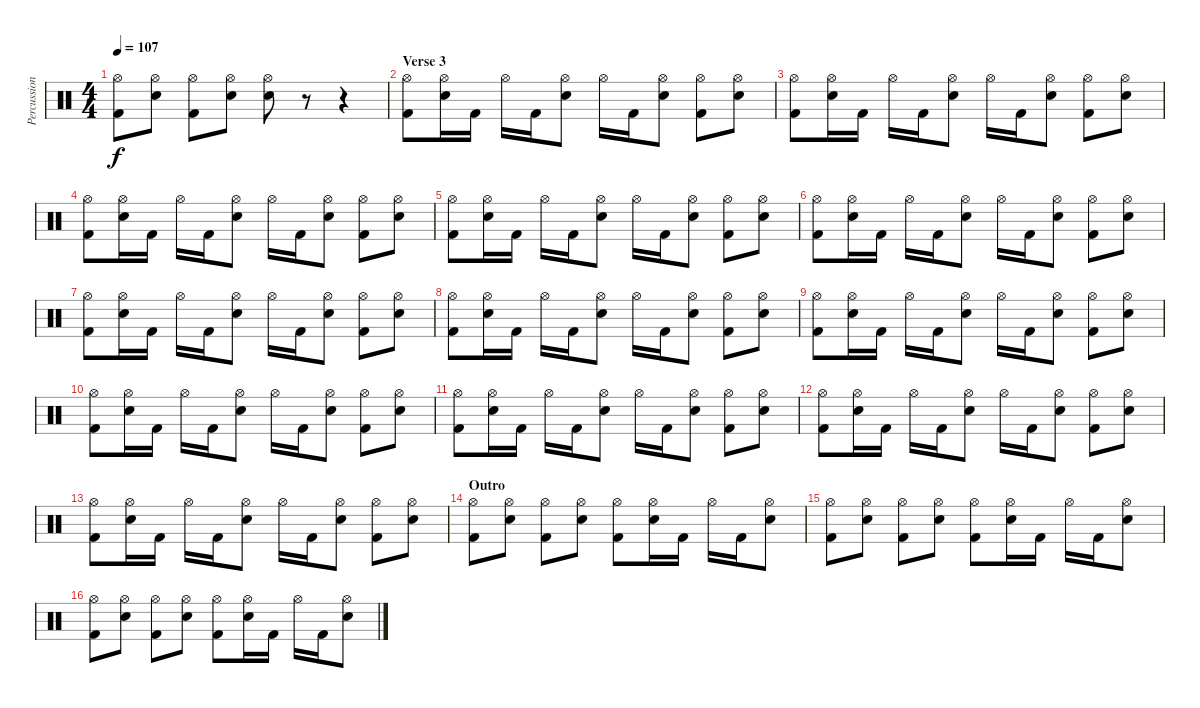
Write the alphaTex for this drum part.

\track ("Percussion" "Percussion") {instrument percussion}
\staff {score}
\articulation defaults
\ts (4 4)
\tempo 107
\clef neutral
\ks c
("Hi-Hat (open)" "Kick (hit) 2").8{dy f} ("Hi-Hat (open)" "Electric Snare (hit)").8 ("Hi-Hat (open)" "Kick (hit) 2").8 ("Hi-Hat (open)" "Electric Snare (hit)").8 ("Hi-Hat (open)" "Electric Snare (hit)").8 r.8 r.4 |
\section ("" "Verse 3")
("Hi-Hat (open)" "Kick (hit) 2").8 ("Hi-Hat (open)" "Electric Snare (hit)").16 "Kick (hit) 2".16 "Hi-Hat (open)".16 "Kick (hit) 2".16 ("Hi-Hat (open)" "Electric Snare (hit)").8 "Hi-Hat (open)".16 "Kick (hit) 2".16 ("Hi-Hat (open)" "Electric Snare (hit)").8 ("Hi-Hat (open)" "Kick (hit) 2").8 ("Hi-Hat (open)" "Electric Snare (hit)").8 |
("Hi-Hat (open)" "Kick (hit) 2").8 ("Hi-Hat (open)" "Electric Snare (hit)").16 "Kick (hit) 2".16 "Hi-Hat (open)".16 "Kick (hit) 2".16 ("Hi-Hat (open)" "Electric Snare (hit)").8 "Hi-Hat (open)".16 "Kick (hit) 2".16 ("Hi-Hat (open)" "Electric Snare (hit)").8 ("Hi-Hat (open)" "Kick (hit) 2").8 ("Hi-Hat (open)" "Electric Snare (hit)").8 |
("Hi-Hat (open)" "Kick (hit) 2").8 ("Hi-Hat (open)" "Electric Snare (hit)").16 "Kick (hit) 2".16 "Hi-Hat (open)".16 "Kick (hit) 2".16 ("Hi-Hat (open)" "Electric Snare (hit)").8 "Hi-Hat (open)".16 "Kick (hit) 2".16 ("Hi-Hat (open)" "Electric Snare (hit)").8 ("Hi-Hat (open)" "Kick (hit) 2").8 ("Hi-Hat (open)" "Electric Snare (hit)").8 |
("Hi-Hat (open)" "Kick (hit) 2").8 ("Hi-Hat (open)" "Electric Snare (hit)").16 "Kick (hit) 2".16 "Hi-Hat (open)".16 "Kick (hit) 2".16 ("Hi-Hat (open)" "Electric Snare (hit)").8 "Hi-Hat (open)".16 "Kick (hit) 2".16 ("Hi-Hat (open)" "Electric Snare (hit)").8 ("Hi-Hat (open)" "Kick (hit) 2").8 ("Hi-Hat (open)" "Electric Snare (hit)").8 |
("Hi-Hat (open)" "Kick (hit) 2").8 ("Hi-Hat (open)" "Electric Snare (hit)").16 "Kick (hit) 2".16 "Hi-Hat (open)".16 "Kick (hit) 2".16 ("Hi-Hat (open)" "Electric Snare (hit)").8 "Hi-Hat (open)".16 "Kick (hit) 2".16 ("Hi-Hat (open)" "Electric Snare (hit)").8 ("Hi-Hat (open)" "Kick (hit) 2").8 ("Hi-Hat (open)" "Electric Snare (hit)").8 |
("Hi-Hat (open)" "Kick (hit) 2").8 ("Hi-Hat (open)" "Electric Snare (hit)").16 "Kick (hit) 2".16 "Hi-Hat (open)".16 "Kick (hit) 2".16 ("Hi-Hat (open)" "Electric Snare (hit)").8 "Hi-Hat (open)".16 "Kick (hit) 2".16 ("Hi-Hat (open)" "Electric Snare (hit)").8 ("Hi-Hat (open)" "Kick (hit) 2").8 ("Hi-Hat (open)" "Electric Snare (hit)").8 |
("Hi-Hat (open)" "Kick (hit) 2").8 ("Hi-Hat (open)" "Electric Snare (hit)").16 "Kick (hit) 2".16 "Hi-Hat (open)".16 "Kick (hit) 2".16 ("Hi-Hat (open)" "Electric Snare (hit)").8 "Hi-Hat (open)".16 "Kick (hit) 2".16 ("Hi-Hat (open)" "Electric Snare (hit)").8 ("Hi-Hat (open)" "Kick (hit) 2").8 ("Hi-Hat (open)" "Electric Snare (hit)").8 |
("Hi-Hat (open)" "Kick (hit) 2").8 ("Hi-Hat (open)" "Electric Snare (hit)").16 "Kick (hit) 2".16 "Hi-Hat (open)".16 "Kick (hit) 2".16 ("Hi-Hat (open)" "Electric Snare (hit)").8 "Hi-Hat (open)".16 "Kick (hit) 2".16 ("Hi-Hat (open)" "Electric Snare (hit)").8 ("Hi-Hat (open)" "Kick (hit) 2").8 ("Hi-Hat (open)" "Electric Snare (hit)").8 |
("Hi-Hat (open)" "Kick (hit) 2").8 ("Hi-Hat (open)" "Electric Snare (hit)").16 "Kick (hit) 2".16 "Hi-Hat (open)".16 "Kick (hit) 2".16 ("Hi-Hat (open)" "Electric Snare (hit)").8 "Hi-Hat (open)".16 "Kick (hit) 2".16 ("Hi-Hat (open)" "Electric Snare (hit)").8 ("Hi-Hat (open)" "Kick (hit) 2").8 ("Hi-Hat (open)" "Electric Snare (hit)").8 |
("Hi-Hat (open)" "Kick (hit) 2").8 ("Hi-Hat (open)" "Electric Snare (hit)").16 "Kick (hit) 2".16 "Hi-Hat (open)".16 "Kick (hit) 2".16 ("Hi-Hat (open)" "Electric Snare (hit)").8 "Hi-Hat (open)".16 "Kick (hit) 2".16 ("Hi-Hat (open)" "Electric Snare (hit)").8 ("Hi-Hat (open)" "Kick (hit) 2").8 ("Hi-Hat (open)" "Electric Snare (hit)").8 |
("Hi-Hat (open)" "Kick (hit) 2").8 ("Hi-Hat (open)" "Electric Snare (hit)").16 "Kick (hit) 2".16 "Hi-Hat (open)".16 "Kick (hit) 2".16 ("Hi-Hat (open)" "Electric Snare (hit)").8 "Hi-Hat (open)".16 "Kick (hit) 2".16 ("Hi-Hat (open)" "Electric Snare (hit)").8 ("Hi-Hat (open)" "Kick (hit) 2").8 ("Hi-Hat (open)" "Electric Snare (hit)").8 |
("Hi-Hat (open)" "Kick (hit) 2").8 ("Hi-Hat (open)" "Electric Snare (hit)").16 "Kick (hit) 2".16 "Hi-Hat (open)".16 "Kick (hit) 2".16 ("Hi-Hat (open)" "Electric Snare (hit)").8 "Hi-Hat (open)".16 "Kick (hit) 2".16 ("Hi-Hat (open)" "Electric Snare (hit)").8 ("Hi-Hat (open)" "Kick (hit) 2").8 ("Hi-Hat (open)" "Electric Snare (hit)").8 |
\section ("" "Outro")
("Hi-Hat (open)" "Kick (hit) 2").8 ("Hi-Hat (open)" "Electric Snare (hit)").8 ("Hi-Hat (open)" "Kick (hit) 2").8 ("Hi-Hat (open)" "Electric Snare (hit)").8 ("Hi-Hat (open)" "Kick (hit) 2").8 ("Hi-Hat (open)" "Electric Snare (hit)").16 "Kick (hit) 2".16 "Hi-Hat (open)".16 "Kick (hit) 2".16 ("Hi-Hat (open)" "Electric Snare (hit)").8 |
("Hi-Hat (open)" "Kick (hit) 2").8 ("Hi-Hat (open)" "Electric Snare (hit)").8 ("Hi-Hat (open)" "Kick (hit) 2").8 ("Hi-Hat (open)" "Electric Snare (hit)").8 ("Hi-Hat (open)" "Kick (hit) 2").8 ("Hi-Hat (open)" "Electric Snare (hit)").16 "Kick (hit) 2".16 "Hi-Hat (open)".16 "Kick (hit) 2".16 ("Hi-Hat (open)" "Electric Snare (hit)").8 |
("Hi-Hat (open)" "Kick (hit) 2").8 ("Hi-Hat (open)" "Electric Snare (hit)").8 ("Hi-Hat (open)" "Kick (hit) 2").8 ("Hi-Hat (open)" "Electric Snare (hit)").8 ("Hi-Hat (open)" "Kick (hit) 2").8 ("Hi-Hat (open)" "Electric Snare (hit)").16 "Kick (hit) 2".16 "Hi-Hat (open)".16 "Kick (hit) 2".16 ("Hi-Hat (open)" "Electric Snare (hit)").8
